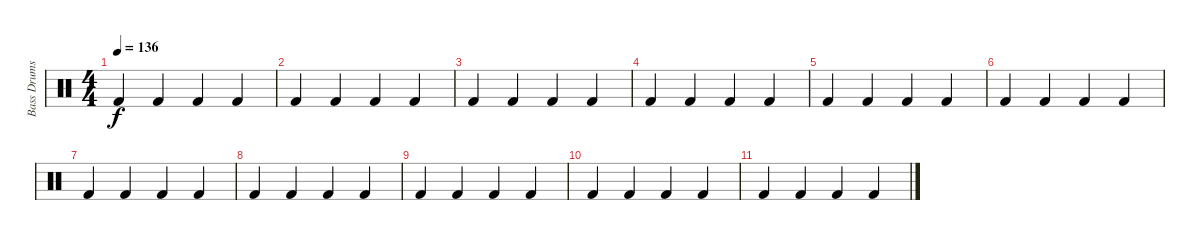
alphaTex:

\track ("Bass Drums" "Bass Drums") {instrument percussion}
\staff {score}
\articulation defaults
\ts (4 4)
\tempo 136
\clef neutral
\ks c "Kick (hit) 2".4{dy f} "Kick (hit) 2".4 "Kick (hit) 2".4 "Kick (hit) 2".4
|
"Kick (hit) 2".4 "Kick (hit) 2".4 "Kick (hit) 2".4 "Kick (hit) 2".4 |
"Kick (hit) 2".4 "Kick (hit) 2".4 "Kick (hit) 2".4 "Kick (hit) 2".4 |
"Kick (hit) 2".4 "Kick (hit) 2".4 "Kick (hit) 2".4 "Kick (hit) 2".4 |
"Kick (hit) 2".4 "Kick (hit) 2".4 "Kick (hit) 2".4 "Kick (hit) 2".4 |
"Kick (hit) 2".4 "Kick (hit) 2".4 "Kick (hit) 2".4 "Kick (hit) 2".4 |
"Kick (hit) 2".4 "Kick (hit) 2".4 "Kick (hit) 2".4 "Kick (hit) 2".4 |
"Kick (hit) 2".4 "Kick (hit) 2".4 "Kick (hit) 2".4 "Kick (hit) 2".4 |
"Kick (hit) 2".4 "Kick (hit) 2".4 "Kick (hit) 2".4 "Kick (hit) 2".4 |
"Kick (hit) 2".4{volume 0} "Kick (hit) 2".4 "Kick (hit) 2".4 "Kick (hit) 2".4 |
"Kick (hit) 2".4 "Kick (hit) 2".4 "Kick (hit) 2".4 "Kick (hit) 2".4
